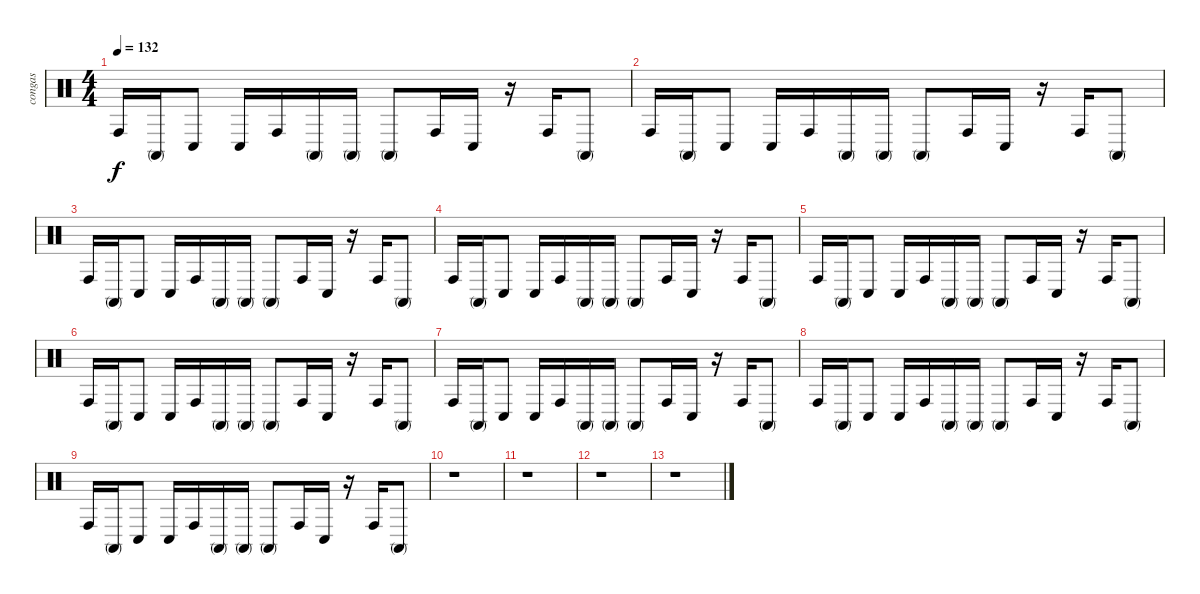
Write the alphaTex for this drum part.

\track ("congas" "congas") {instrument percussion}
\staff {score}
\articulation defaults
\ts (4 4)
\tempo 132
\clef neutral
\ks c "Conga high (hit)".16{dy f} "Conga high (mute)".16 "Conga low (hit)".8 "Conga low (hit)".16 "Conga high (hit)".16 "Conga high (mute)".16 "Conga high (mute)".16 "Conga high (mute)".8 "Conga high (hit)".16 "Conga low (hit)".16
r.16 "Conga high (hit)".16 "Conga high (mute)".8 |
"Conga high (hit)".16 "Conga high (mute)".16 "Conga low (hit)".8 "Conga low (hit)".16 "Conga high (hit)".16 "Conga high (mute)".16 "Conga high (mute)".16 "Conga high (mute)".8 "Conga high (hit)".16 "Conga low (hit)".16 r.16 "Conga high (hit)".16 "Conga high (mute)".8 |
"Conga high (hit)".16 "Conga high (mute)".16 "Conga low (hit)".8 "Conga low (hit)".16 "Conga high (hit)".16 "Conga high (mute)".16 "Conga high (mute)".16 "Conga high (mute)".8 "Conga high (hit)".16 "Conga low (hit)".16 r.16 "Conga high (hit)".16 "Conga high (mute)".8 |
"Conga high (hit)".16 "Conga high (mute)".16 "Conga low (hit)".8 "Conga low (hit)".16 "Conga high (hit)".16 "Conga high (mute)".16 "Conga high (mute)".16 "Conga high (mute)".8 "Conga high (hit)".16 "Conga low (hit)".16 r.16 "Conga high (hit)".16 "Conga high (mute)".8 |
"Conga high (hit)".16 "Conga high (mute)".16 "Conga low (hit)".8 "Conga low (hit)".16 "Conga high (hit)".16 "Conga high (mute)".16 "Conga high (mute)".16 "Conga high (mute)".8 "Conga high (hit)".16 "Conga low (hit)".16 r.16 "Conga high (hit)".16 "Conga high (mute)".8 |
"Conga high (hit)".16 "Conga high (mute)".16 "Conga low (hit)".8 "Conga low (hit)".16 "Conga high (hit)".16 "Conga high (mute)".16 "Conga high (mute)".16 "Conga high (mute)".8 "Conga high (hit)".16 "Conga low (hit)".16 r.16 "Conga high (hit)".16 "Conga high (mute)".8 |
"Conga high (hit)".16 "Conga high (mute)".16 "Conga low (hit)".8 "Conga low (hit)".16 "Conga high (hit)".16 "Conga high (mute)".16 "Conga high (mute)".16 "Conga high (mute)".8 "Conga high (hit)".16 "Conga low (hit)".16 r.16 "Conga high (hit)".16 "Conga high (mute)".8 |
"Conga high (hit)".16 "Conga high (mute)".16 "Conga low (hit)".8 "Conga low (hit)".16 "Conga high (hit)".16 "Conga high (mute)".16 "Conga high (mute)".16 "Conga high (mute)".8 "Conga high (hit)".16 "Conga low (hit)".16 r.16 "Conga high (hit)".16 "Conga high (mute)".8 |
"Conga high (hit)".16 "Conga high (mute)".16 "Conga low (hit)".8 "Conga low (hit)".16 "Conga high (hit)".16 "Conga high (mute)".16 "Conga high (mute)".16 "Conga high (mute)".8{volume 16} "Conga high (hit)".16 "Conga low (hit)".16 r.16 "Conga high (hit)".16 "Conga high (mute)".8 |
r.1 |
r.1 |
r.1 |
r.1
